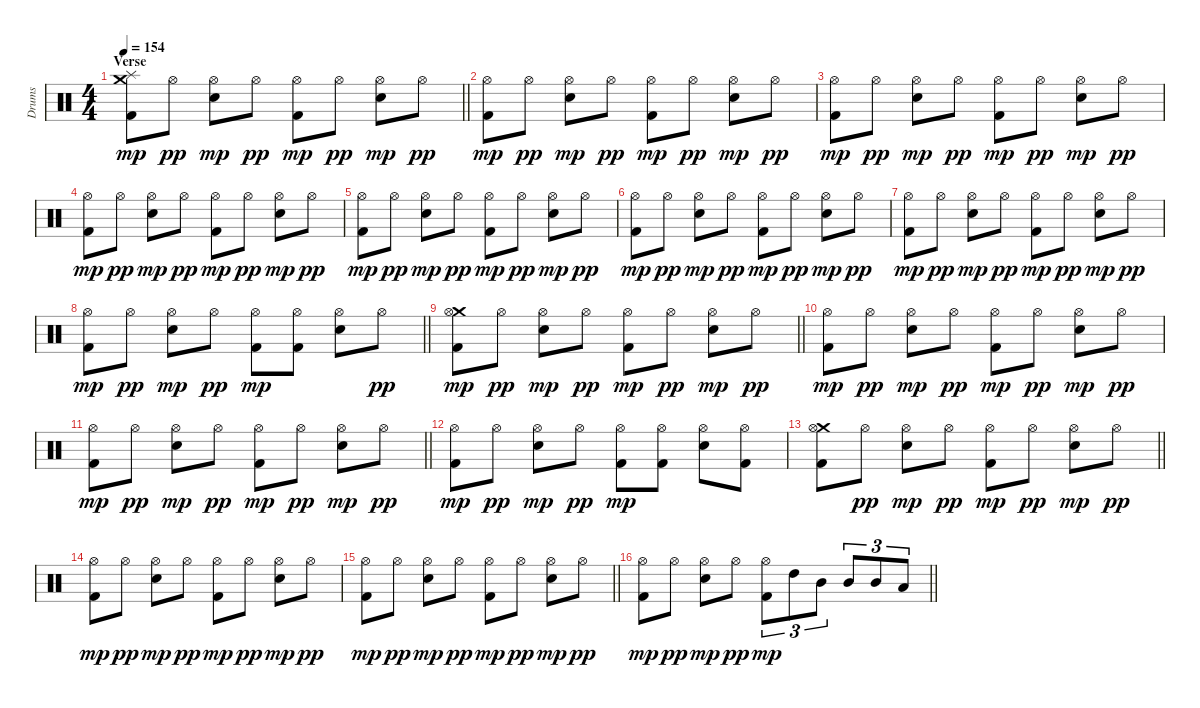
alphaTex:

\track ("Drums" "Drums") {instrument percussion}
\staff {score}
\articulation defaults
\ts (4 4)
\section ("" "Verse")
\tempo 154
\clef neutral
\barLineRight lightlight
\ks c
("Crash medium (hit)" "Splash (hit)" "Kick (hit) 2").8{dy mp} "Hi-Hat (open)".8{dy pp} ("Hi-Hat (open)" "Electric Snare (hit)").8{dy mp} "Hi-Hat (open)".8{dy pp} ("Hi-Hat (open)" "Kick (hit) 2").8{dy mp} "Hi-Hat (open)".8{dy pp} ("Hi-Hat (open)" "Electric Snare (hit)").8{dy mp} "Hi-Hat (open)".8{dy pp} |
\section ("" "")
("Hi-Hat (open)" "Kick (hit) 2").8{dy mp} "Hi-Hat (open)".8{dy pp} ("Hi-Hat (open)" "Electric Snare (hit)").8{dy mp} "Hi-Hat (open)".8{dy pp} ("Hi-Hat (open)" "Kick (hit) 2").8{dy mp} "Hi-Hat (open)".8{dy pp} ("Hi-Hat (open)" "Electric Snare (hit)").8{dy mp} "Hi-Hat (open)".8{dy pp} |
("Hi-Hat (open)" "Kick (hit) 2").8{dy mp} "Hi-Hat (open)".8{dy pp} ("Hi-Hat (open)" "Electric Snare (hit)").8{dy mp} "Hi-Hat (open)".8{dy pp} ("Hi-Hat (open)" "Kick (hit) 2").8{dy mp} "Hi-Hat (open)".8{dy pp} ("Hi-Hat (open)" "Electric Snare (hit)").8{dy mp} "Hi-Hat (open)".8{dy pp} |
("Hi-Hat (open)" "Kick (hit) 2").8{dy mp} "Hi-Hat (open)".8{dy pp} ("Hi-Hat (open)" "Electric Snare (hit)").8{dy mp} "Hi-Hat (open)".8{dy pp} ("Hi-Hat (open)" "Kick (hit) 2").8{dy mp} "Hi-Hat (open)".8{dy pp} ("Hi-Hat (open)" "Electric Snare (hit)").8{dy mp} "Hi-Hat (open)".8{dy pp} |
("Hi-Hat (open)" "Kick (hit) 2").8{dy mp} "Hi-Hat (open)".8{dy pp} ("Hi-Hat (open)" "Electric Snare (hit)").8{dy mp} "Hi-Hat (open)".8{dy pp} ("Hi-Hat (open)" "Kick (hit) 2").8{dy mp} "Hi-Hat (open)".8{dy pp} ("Hi-Hat (open)" "Electric Snare (hit)").8{dy mp} "Hi-Hat (open)".8{dy pp} |
("Hi-Hat (open)" "Kick (hit) 2").8{dy mp} "Hi-Hat (open)".8{dy pp} ("Hi-Hat (open)" "Electric Snare (hit)").8{dy mp} "Hi-Hat (open)".8{dy pp} ("Hi-Hat (open)" "Kick (hit) 2").8{dy mp} "Hi-Hat (open)".8{dy pp} ("Hi-Hat (open)" "Electric Snare (hit)").8{dy mp} "Hi-Hat (open)".8{dy pp} |
("Hi-Hat (open)" "Kick (hit) 2").8{dy mp} "Hi-Hat (open)".8{dy pp} ("Hi-Hat (open)" "Electric Snare (hit)").8{dy mp} "Hi-Hat (open)".8{dy pp} ("Hi-Hat (open)" "Kick (hit) 2").8{dy mp} "Hi-Hat (open)".8{dy pp} ("Hi-Hat (open)" "Electric Snare (hit)").8{dy mp} "Hi-Hat (open)".8{dy pp} |
\barLineRight lightlight
("Hi-Hat (open)" "Kick (hit) 2").8{dy mp} "Hi-Hat (open)".8{dy pp} ("Hi-Hat (open)" "Electric Snare (hit)").8{dy mp} "Hi-Hat (open)".8{dy pp} ("Hi-Hat (open)" "Kick (hit) 2").8{dy mp} ("Hi-Hat (open)" "Kick (hit) 2").8 ("Hi-Hat (open)" "Electric Snare (hit)").8 "Hi-Hat (open)".8{dy pp} |
\barLineRight lightlight
("Crash medium (hit)" "Hi-Hat (open)" "Kick (hit) 2").8{dy mp} "Hi-Hat (open)".8{dy pp} ("Hi-Hat (open)" "Electric Snare (hit)").8{dy mp} "Hi-Hat (open)".8{dy pp} ("Hi-Hat (open)" "Kick (hit) 2").8{dy mp} "Hi-Hat (open)".8{dy pp} ("Hi-Hat (open)" "Electric Snare (hit)").8{dy mp} "Hi-Hat (open)".8{dy pp} |
("Hi-Hat (open)" "Kick (hit) 2").8{dy mp} "Hi-Hat (open)".8{dy pp} ("Hi-Hat (open)" "Electric Snare (hit)").8{dy mp} "Hi-Hat (open)".8{dy pp} ("Hi-Hat (open)" "Kick (hit) 2").8{dy mp} "Hi-Hat (open)".8{dy pp} ("Hi-Hat (open)" "Electric Snare (hit)").8{dy mp} "Hi-Hat (open)".8{dy pp} |
\barLineRight lightlight
("Hi-Hat (open)" "Kick (hit) 2").8{dy mp} "Hi-Hat (open)".8{dy pp} ("Hi-Hat (open)" "Electric Snare (hit)").8{dy mp} "Hi-Hat (open)".8{dy pp} ("Hi-Hat (open)" "Kick (hit) 2").8{dy mp} "Hi-Hat (open)".8{dy pp} ("Hi-Hat (open)" "Electric Snare (hit)").8{dy mp} "Hi-Hat (open)".8{dy pp} |
("Hi-Hat (open)" "Kick (hit) 2").8{dy mp} "Hi-Hat (open)".8{dy pp} ("Hi-Hat (open)" "Electric Snare (hit)").8{dy mp} "Hi-Hat (open)".8{dy pp} ("Hi-Hat (open)" "Kick (hit) 2").8{dy mp} ("Hi-Hat (open)" "Kick (hit) 2").8 ("Hi-Hat (open)" "Electric Snare (hit)").8 ("Hi-Hat (open)" "Kick (hit) 2").8 |
\barLineRight lightlight
("Crash medium (hit)" "Hi-Hat (open)" "Kick (hit) 2").8 "Hi-Hat (open)".8{dy pp} ("Hi-Hat (open)" "Electric Snare (hit)").8{dy mp} "Hi-Hat (open)".8{dy pp} ("Hi-Hat (open)" "Kick (hit) 2").8{dy mp} "Hi-Hat (open)".8{dy pp} ("Hi-Hat (open)" "Electric Snare (hit)").8{dy mp} "Hi-Hat (open)".8{dy pp} |
("Hi-Hat (open)" "Kick (hit) 2").8{dy mp} "Hi-Hat (open)".8{dy pp} ("Hi-Hat (open)" "Electric Snare (hit)").8{dy mp} "Hi-Hat (open)".8{dy pp} ("Hi-Hat (open)" "Kick (hit) 2").8{dy mp} "Hi-Hat (open)".8{dy pp} ("Hi-Hat (open)" "Electric Snare (hit)").8{dy mp} "Hi-Hat (open)".8{dy pp} |
\barLineRight lightlight
("Hi-Hat (open)" "Kick (hit) 2").8{dy mp} "Hi-Hat (open)".8{dy pp} ("Hi-Hat (open)" "Electric Snare (hit)").8{dy mp} "Hi-Hat (open)".8{dy pp} ("Hi-Hat (open)" "Kick (hit) 2").8{dy mp} "Hi-Hat (open)".8{dy pp} ("Hi-Hat (open)" "Electric Snare (hit)").8{dy mp} "Hi-Hat (open)".8{dy pp} |
\barLineRight lightlight
("Hi-Hat (open)" "Kick (hit) 2").8{dy mp} "Hi-Hat (open)".8{dy pp} ("Hi-Hat (open)" "Electric Snare (hit)").8{dy mp} "Hi-Hat (open)".8{dy pp} ("Hi-Hat (open)" "Kick (hit) 2").8{tu (3 2) dy mp} "High Tom (hit)".8{tu (3 2)} "Mid Tom (hit)".8{tu (3 2)} "Mid Tom (hit)".8{tu (3 2)} "Mid Tom (hit)".8{tu (3 2)} "Low Tom (hit)".8{tu (3 2)}
